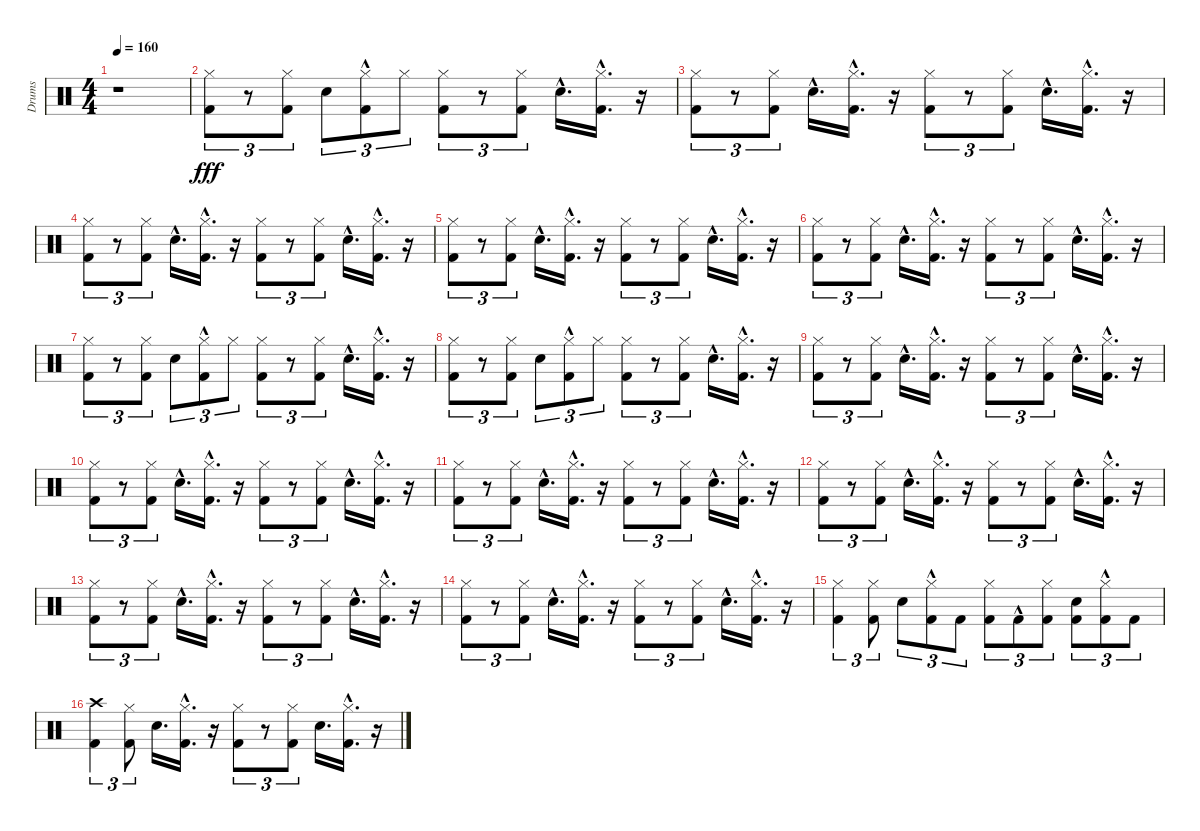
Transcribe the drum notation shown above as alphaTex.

\track ("Drums" "Drums") {instrument percussion}
\staff {score}
\articulation defaults
\ts (4 4)
\tempo 160
\clef neutral
\ks c
r.1{dy fff} |
("Kick (hit) 2" "Hi-Hat (closed)").8{tu (3 2)} r.8{tu (3 2)} ("Kick (hit) 2" "Hi-Hat (closed)").8{tu (3 2)} "Snare (hit) 2".8{tu (3 2)} ("Kick (hit) 2"{hac} "Hi-Hat (closed)"{hac}).8{tu (3 2)} "Hi-Hat (closed)".8{tu (3 2)} ("Kick (hit) 2" "Hi-Hat (closed)").8{tu (3 2)} r.8{tu (3 2)} ("Kick (hit) 2" "Hi-Hat (closed)").8{tu (3 2)} "Snare (hit) 2"{hac}.16{d} ("Kick (hit) 2"{hac} "Hi-Hat (closed)"{hac}).16{d} r.16 |
("Kick (hit) 2" "Hi-Hat (closed)").8{tu (3 2)} r.8{tu (3 2)} ("Kick (hit) 2" "Hi-Hat (closed)").8{tu (3 2)} "Snare (hit) 2"{hac}.16{d} ("Kick (hit) 2"{hac} "Hi-Hat (closed)"{hac}).16{d} r.16 ("Kick (hit) 2" "Hi-Hat (closed)").8{tu (3 2)} r.8{tu (3 2)} ("Kick (hit) 2" "Hi-Hat (closed)").8{tu (3 2)} "Snare (hit) 2"{hac}.16{d} ("Kick (hit) 2"{hac} "Hi-Hat (closed)"{hac}).16{d} r.16 |
("Kick (hit) 2" "Hi-Hat (closed)").8{tu (3 2)} r.8{tu (3 2)} ("Kick (hit) 2" "Hi-Hat (closed)").8{tu (3 2)} "Snare (hit) 2"{hac}.16{d} ("Kick (hit) 2"{hac} "Hi-Hat (closed)"{hac}).16{d} r.16 ("Kick (hit) 2" "Hi-Hat (closed)").8{tu (3 2)} r.8{tu (3 2)} ("Kick (hit) 2" "Hi-Hat (closed)").8{tu (3 2)} "Snare (hit) 2"{hac}.16{d} ("Kick (hit) 2"{hac} "Hi-Hat (closed)"{hac}).16{d} r.16 |
("Kick (hit) 2" "Hi-Hat (closed)").8{tu (3 2)} r.8{tu (3 2)} ("Kick (hit) 2" "Hi-Hat (closed)").8{tu (3 2)} "Snare (hit) 2"{hac}.16{d} ("Kick (hit) 2"{hac} "Hi-Hat (closed)"{hac}).16{d} r.16 ("Kick (hit) 2" "Hi-Hat (closed)").8{tu (3 2)} r.8{tu (3 2)} ("Kick (hit) 2" "Hi-Hat (closed)").8{tu (3 2)} "Snare (hit) 2"{hac}.16{d} ("Kick (hit) 2"{hac} "Hi-Hat (closed)"{hac}).16{d} r.16 |
("Kick (hit) 2" "Hi-Hat (closed)").8{tu (3 2)} r.8{tu (3 2)} ("Kick (hit) 2" "Hi-Hat (closed)").8{tu (3 2)} "Snare (hit) 2"{hac}.16{d} ("Kick (hit) 2"{hac} "Hi-Hat (closed)"{hac}).16{d} r.16 ("Kick (hit) 2" "Hi-Hat (closed)").8{tu (3 2)} r.8{tu (3 2)} ("Kick (hit) 2" "Hi-Hat (closed)").8{tu (3 2)} "Snare (hit) 2"{hac}.16{d} ("Kick (hit) 2"{hac} "Hi-Hat (closed)"{hac}).16{d} r.16 |
("Kick (hit) 2" "Hi-Hat (closed)").8{tu (3 2)} r.8{tu (3 2)} ("Kick (hit) 2" "Hi-Hat (closed)").8{tu (3 2)} "Snare (hit) 2".8{tu (3 2)} ("Kick (hit) 2"{hac} "Hi-Hat (closed)"{hac}).8{tu (3 2)} "Hi-Hat (closed)".8{tu (3 2)} ("Kick (hit) 2" "Hi-Hat (closed)").8{tu (3 2)} r.8{tu (3 2)} ("Kick (hit) 2" "Hi-Hat (closed)").8{tu (3 2)} "Snare (hit) 2"{hac}.16{d} ("Kick (hit) 2"{hac} "Hi-Hat (closed)"{hac}).16{d} r.16 |
("Kick (hit) 2" "Hi-Hat (closed)").8{tu (3 2)} r.8{tu (3 2)} ("Kick (hit) 2" "Hi-Hat (closed)").8{tu (3 2)} "Snare (hit) 2".8{tu (3 2)} ("Kick (hit) 2"{hac} "Hi-Hat (closed)"{hac}).8{tu (3 2)} "Hi-Hat (closed)".8{tu (3 2)} ("Kick (hit) 2" "Hi-Hat (closed)").8{tu (3 2)} r.8{tu (3 2)} ("Kick (hit) 2" "Hi-Hat (closed)").8{tu (3 2)} "Snare (hit) 2"{hac}.16{d} ("Kick (hit) 2"{hac} "Hi-Hat (closed)"{hac}).16{d} r.16 |
("Kick (hit) 2" "Hi-Hat (closed)").8{tu (3 2)} r.8{tu (3 2)} ("Kick (hit) 2" "Hi-Hat (closed)").8{tu (3 2)} "Snare (hit) 2"{hac}.16{d} ("Kick (hit) 2"{hac} "Hi-Hat (closed)"{hac}).16{d} r.16 ("Kick (hit) 2" "Hi-Hat (closed)").8{tu (3 2)} r.8{tu (3 2)} ("Kick (hit) 2" "Hi-Hat (closed)").8{tu (3 2)} "Snare (hit) 2"{hac}.16{d} ("Kick (hit) 2"{hac} "Hi-Hat (closed)"{hac}).16{d} r.16 |
("Kick (hit) 2" "Hi-Hat (closed)").8{tu (3 2)} r.8{tu (3 2)} ("Kick (hit) 2" "Hi-Hat (closed)").8{tu (3 2)} "Snare (hit) 2"{hac}.16{d} ("Kick (hit) 2"{hac} "Hi-Hat (closed)"{hac}).16{d} r.16 ("Kick (hit) 2" "Hi-Hat (closed)").8{tu (3 2)} r.8{tu (3 2)} ("Kick (hit) 2" "Hi-Hat (closed)").8{tu (3 2)} "Snare (hit) 2"{hac}.16{d} ("Kick (hit) 2"{hac} "Hi-Hat (closed)"{hac}).16{d} r.16 |
("Kick (hit) 2" "Hi-Hat (closed)").8{tu (3 2)} r.8{tu (3 2)} ("Kick (hit) 2" "Hi-Hat (closed)").8{tu (3 2)} "Snare (hit) 2"{hac}.16{d} ("Kick (hit) 2"{hac} "Hi-Hat (closed)"{hac}).16{d} r.16 ("Kick (hit) 2" "Hi-Hat (closed)").8{tu (3 2)} r.8{tu (3 2)} ("Kick (hit) 2" "Hi-Hat (closed)").8{tu (3 2)} "Snare (hit) 2"{hac}.16{d} ("Kick (hit) 2"{hac} "Hi-Hat (closed)"{hac}).16{d} r.16 |
("Kick (hit) 2" "Hi-Hat (closed)").8{tu (3 2)} r.8{tu (3 2)} ("Kick (hit) 2" "Hi-Hat (closed)").8{tu (3 2)} "Snare (hit) 2"{hac}.16{d} ("Kick (hit) 2"{hac} "Hi-Hat (closed)"{hac}).16{d} r.16 ("Kick (hit) 2" "Hi-Hat (closed)").8{tu (3 2)} r.8{tu (3 2)} ("Kick (hit) 2" "Hi-Hat (closed)").8{tu (3 2)} "Snare (hit) 2"{hac}.16{d} ("Kick (hit) 2"{hac} "Hi-Hat (closed)"{hac}).16{d} r.16 |
("Kick (hit) 2" "Hi-Hat (closed)").8{tu (3 2)} r.8{tu (3 2)} ("Kick (hit) 2" "Hi-Hat (closed)").8{tu (3 2)} "Snare (hit) 2"{hac}.16{d} ("Kick (hit) 2"{hac} "Hi-Hat (closed)"{hac}).16{d} r.16 ("Kick (hit) 2" "Hi-Hat (closed)").8{tu (3 2)} r.8{tu (3 2)} ("Kick (hit) 2" "Hi-Hat (closed)").8{tu (3 2)} "Snare (hit) 2"{hac}.16{d} ("Kick (hit) 2"{hac} "Hi-Hat (closed)"{hac}).16{d} r.16 |
("Kick (hit) 2" "Hi-Hat (closed)").8{tu (3 2)} r.8{tu (3 2)} ("Kick (hit) 2" "Hi-Hat (closed)").8{tu (3 2)} "Snare (hit) 2"{hac}.16{d} ("Kick (hit) 2"{hac} "Hi-Hat (closed)"{hac}).16{d} r.16 ("Kick (hit) 2" "Hi-Hat (closed)").8{tu (3 2)} r.8{tu (3 2)} ("Kick (hit) 2" "Hi-Hat (closed)").8{tu (3 2)} "Snare (hit) 2"{hac}.16{d} ("Kick (hit) 2"{hac} "Hi-Hat (closed)"{hac}).16{d} r.16 |
("Kick (hit) 2" "Hi-Hat (closed)").4{tu (3 2)} ("Kick (hit) 2" "Hi-Hat (closed)").8{tu (3 2)} "Snare (hit) 2".8{tu (3 2)} ("Kick (hit) 2"{hac} "Hi-Hat (closed)"{hac}).8{tu (3 2)} "Kick (hit) 2".8{tu (3 2)} ("Kick (hit) 2" "Hi-Hat (closed)").8{tu (3 2)} "Kick (hit) 2"{hac}.8{tu (3 2)} ("Kick (hit) 2" "Hi-Hat (closed)").8{tu (3 2)} ("Kick (hit) 2" "Snare (hit) 2").8{tu (3 2)} ("Kick (hit) 2"{hac} "Hi-Hat (closed)").8{tu (3 2)} "Kick (hit) 2".8{tu (3 2)} |
("Kick (hit) 2" "Crash high (hit)").4{tu (3 2)} ("Kick (hit) 2" "Hi-Hat (closed)").8{tu (3 2)} "Snare (hit) 2".16{d} ("Kick (hit) 2"{hac} "Hi-Hat (closed)"{hac}).16{d} r.16 ("Kick (hit) 2" "Hi-Hat (closed)").8{tu (3 2)} r.8{tu (3 2)} ("Kick (hit) 2" "Hi-Hat (closed)").8{tu (3 2)} "Snare (hit) 2".16{d} ("Kick (hit) 2"{hac} "Hi-Hat (closed)"{hac}).16{d} r.16
